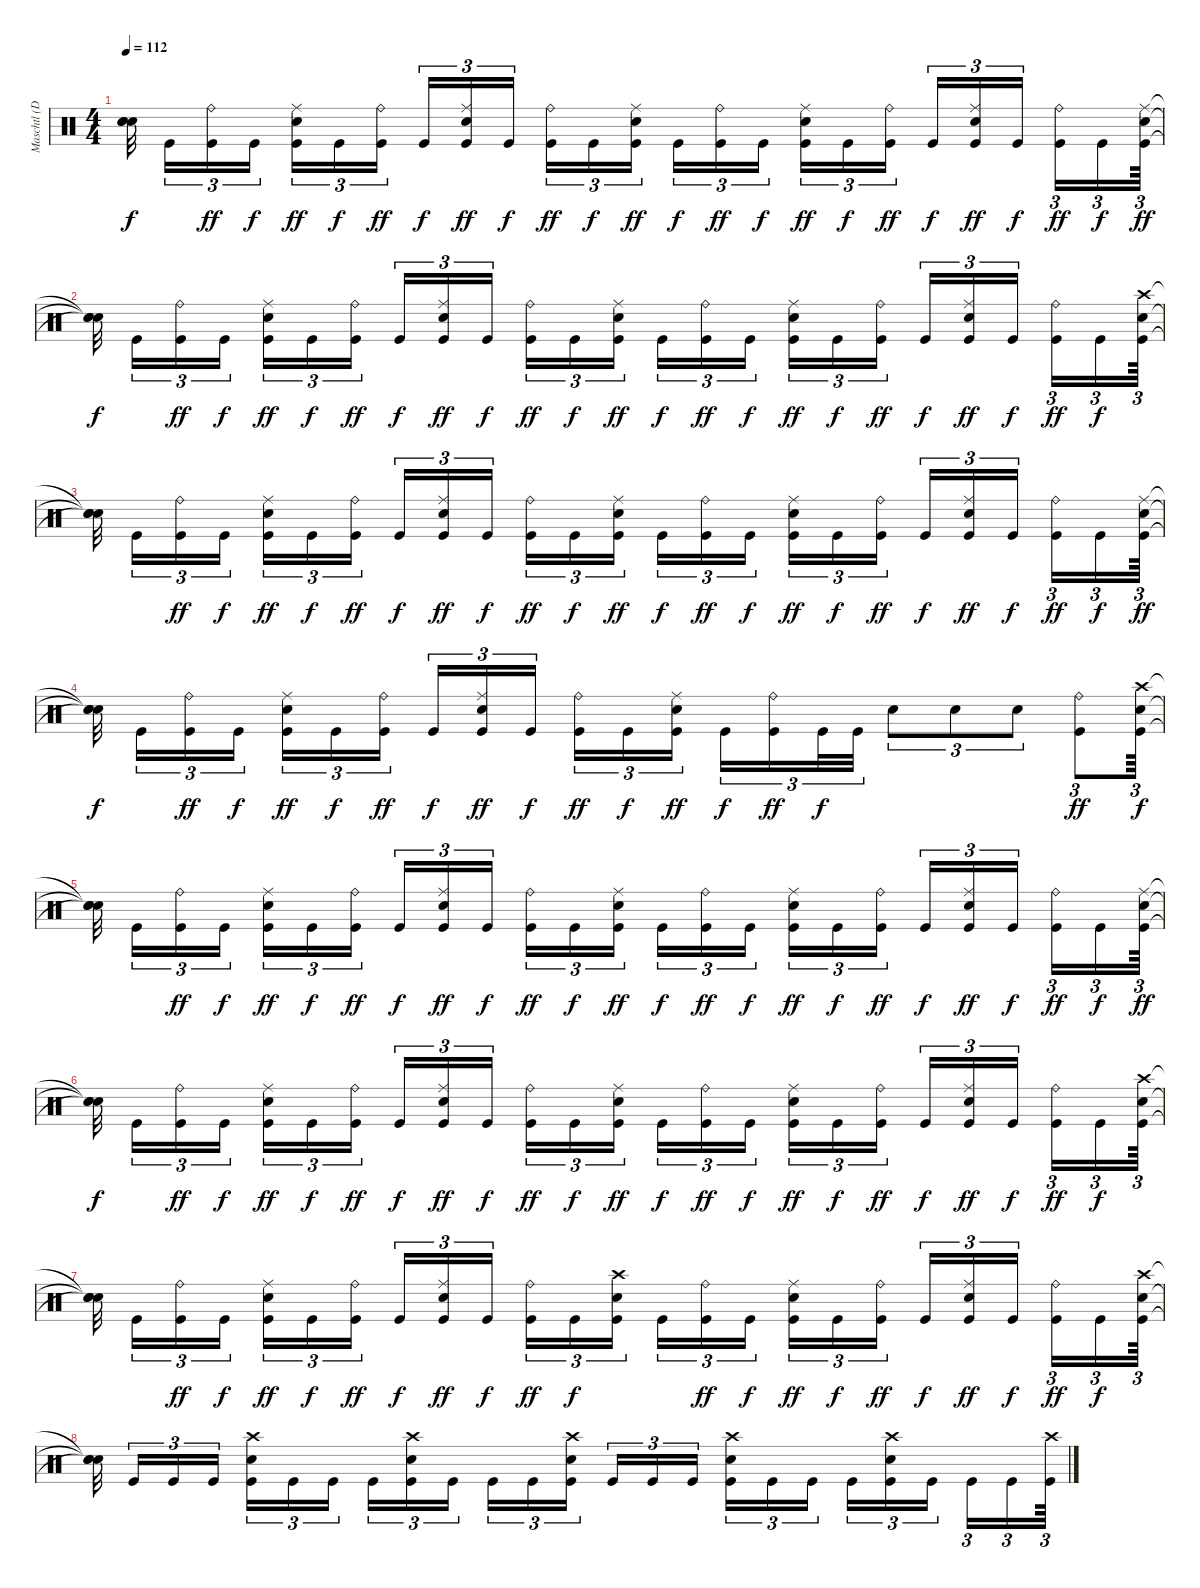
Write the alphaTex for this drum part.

\track ("Maschtl (Drums)" "Maschtl (D") {instrument percussion}
\staff {score}
\articulation defaults
\ts (4 4)
\tempo 112
\clef neutral
\ks c
("Snare (hit)"{t} "Snare (hit)"{t} "Snare (hit)"{t}).32{dy f} "Kick (hit)".16{tu (3 2)} ("Ride (bell)" "Kick (hit)").16{tu (3 2) dy ff} "Kick (hit)".16{tu (3 2) dy f} ("Ride (middle)" "Electric Snare (hit)" "Kick (hit)").16{tu (3 2) dy ff} "Kick (hit)".16{tu (3 2) dy f} ("Ride (bell)" "Kick (hit)").16{tu (3 2) dy ff} "Kick (hit)".16{tu (3 2) dy f} ("Ride (middle)" "Electric Snare (hit)" "Kick (hit)").16{tu (3 2) dy ff} "Kick (hit)".16{tu (3 2) dy f} ("Ride (bell)" "Kick (hit)").16{tu (3 2) dy ff} "Kick (hit)".16{tu (3 2) dy f} ("Ride (middle)" "Electric Snare (hit)" "Kick (hit)").16{tu (3 2) dy ff} "Kick (hit)".16{tu (3 2) dy f} ("Ride (bell)" "Kick (hit)").16{tu (3 2) dy ff} "Kick (hit)".16{tu (3 2) dy f} ("Ride (middle)" "Electric Snare (hit)" "Kick (hit)").16{tu (3 2) dy ff} "Kick (hit)".16{tu (3 2) dy f} ("Ride (bell)" "Kick (hit)").16{tu (3 2) dy ff} "Kick (hit)".16{tu (3 2) dy f} ("Ride (middle)" "Electric Snare (hit)" "Kick (hit)").16{tu (3 2) dy ff} "Kick (hit)".16{tu (3 2) dy f} ("Ride (bell)" "Kick (hit)").16{tu (3 2) dy ff} "Kick (hit)".16{tu (3 2) dy f} ("Ride (middle)" "Electric Snare (hit)" "Kick (hit)").64{tu (3 2) dy ff} |
("Snare (hit)"{t} "Snare (hit)"{t} "Snare (hit)"{t}).32{dy f} "Kick (hit)".16{tu (3 2)} ("Ride (bell)" "Kick (hit)").16{tu (3 2) dy ff} "Kick (hit)".16{tu (3 2) dy f} ("Ride (middle)" "Electric Snare (hit)" "Kick (hit)").16{tu (3 2) dy ff} "Kick (hit)".16{tu (3 2) dy f} ("Ride (bell)" "Kick (hit)").16{tu (3 2) dy ff} "Kick (hit)".16{tu (3 2) dy f} ("Ride (middle)" "Electric Snare (hit)" "Kick (hit)").16{tu (3 2) dy ff} "Kick (hit)".16{tu (3 2) dy f} ("Ride (bell)" "Kick (hit)").16{tu (3 2) dy ff} "Kick (hit)".16{tu (3 2) dy f} ("Ride (middle)" "Electric Snare (hit)" "Kick (hit)").16{tu (3 2) dy ff} "Kick (hit)".16{tu (3 2) dy f} ("Ride (bell)" "Kick (hit)").16{tu (3 2) dy ff} "Kick (hit)".16{tu (3 2) dy f} ("Ride (middle)" "Electric Snare (hit)" "Kick (hit)").16{tu (3 2) dy ff} "Kick (hit)".16{tu (3 2) dy f} ("Ride (bell)" "Kick (hit)").16{tu (3 2) dy ff} "Kick (hit)".16{tu (3 2) dy f} ("Ride (middle)" "Electric Snare (hit)" "Kick (hit)").16{tu (3 2) dy ff} "Kick (hit)".16{tu (3 2) dy f} ("Ride (bell)" "Kick (hit)").16{tu (3 2) dy ff} "Kick (hit)".16{tu (3 2) dy f} ("Crash high (hit)" "Electric Snare (hit)" "Kick (hit)").64{tu (3 2)} |
("Snare (hit)"{t} "Snare (hit)"{t} "Snare (hit)"{t}).32 "Kick (hit)".16{tu (3 2)} ("Ride (bell)" "Kick (hit)").16{tu (3 2) dy ff} "Kick (hit)".16{tu (3 2) dy f} ("Ride (middle)" "Electric Snare (hit)" "Kick (hit)").16{tu (3 2) dy ff} "Kick (hit)".16{tu (3 2) dy f} ("Ride (bell)" "Kick (hit)").16{tu (3 2) dy ff} "Kick (hit)".16{tu (3 2) dy f} ("Ride (middle)" "Electric Snare (hit)" "Kick (hit)").16{tu (3 2) dy ff} "Kick (hit)".16{tu (3 2) dy f} ("Ride (bell)" "Kick (hit)").16{tu (3 2) dy ff} "Kick (hit)".16{tu (3 2) dy f} ("Ride (middle)" "Electric Snare (hit)" "Kick (hit)").16{tu (3 2) dy ff} "Kick (hit)".16{tu (3 2) dy f} ("Ride (bell)" "Kick (hit)").16{tu (3 2) dy ff} "Kick (hit)".16{tu (3 2) dy f} ("Ride (middle)" "Electric Snare (hit)" "Kick (hit)").16{tu (3 2) dy ff} "Kick (hit)".16{tu (3 2) dy f} ("Ride (bell)" "Kick (hit)").16{tu (3 2) dy ff} "Kick (hit)".16{tu (3 2) dy f} ("Ride (middle)" "Electric Snare (hit)" "Kick (hit)").16{tu (3 2) dy ff} "Kick (hit)".16{tu (3 2) dy f} ("Ride (bell)" "Kick (hit)").16{tu (3 2) dy ff} "Kick (hit)".16{tu (3 2) dy f} ("Ride (middle)" "Electric Snare (hit)" "Kick (hit)").64{tu (3 2) dy ff} |
("Snare (hit)"{t} "Snare (hit)"{t} "Snare (hit)"{t}).32{dy f} "Kick (hit)".16{tu (3 2)} ("Ride (bell)" "Kick (hit)").16{tu (3 2) dy ff} "Kick (hit)".16{tu (3 2) dy f} ("Ride (middle)" "Electric Snare (hit)" "Kick (hit)").16{tu (3 2) dy ff} "Kick (hit)".16{tu (3 2) dy f} ("Ride (bell)" "Kick (hit)").16{tu (3 2) dy ff} "Kick (hit)".16{tu (3 2) dy f} ("Ride (middle)" "Electric Snare (hit)" "Kick (hit)").16{tu (3 2) dy ff} "Kick (hit)".16{tu (3 2) dy f} ("Ride (bell)" "Kick (hit)").16{tu (3 2) dy ff} "Kick (hit)".16{tu (3 2) dy f} ("Ride (middle)" "Electric Snare (hit)" "Kick (hit)").16{tu (3 2) dy ff} "Kick (hit)".16{tu (3 2) dy f} ("Ride (bell)" "Kick (hit)").16{tu (3 2) dy ff} "Kick (hit)".32{tu (3 2) dy f} "Kick (hit)".32{tu (3 2)} "Electric Snare (hit)".8{tu (3 2)} "Electric Snare (hit)".8{tu (3 2)} "Electric Snare (hit)".8{tu (3 2)} ("Ride (bell)" "Kick (hit)").8{tu (3 2) dy ff} ("Crash high (hit)" "Electric Snare (hit)" "Kick (hit)").64{tu (3 2) dy f} |
("Snare (hit)"{t} "Snare (hit)"{t} "Snare (hit)"{t}).32 "Kick (hit)".16{tu (3 2)} ("Ride (bell)" "Kick (hit)").16{tu (3 2) dy ff} "Kick (hit)".16{tu (3 2) dy f} ("Ride (middle)" "Electric Snare (hit)" "Kick (hit)").16{tu (3 2) dy ff} "Kick (hit)".16{tu (3 2) dy f} ("Ride (bell)" "Kick (hit)").16{tu (3 2) dy ff} "Kick (hit)".16{tu (3 2) dy f} ("Ride (middle)" "Electric Snare (hit)" "Kick (hit)").16{tu (3 2) dy ff} "Kick (hit)".16{tu (3 2) dy f} ("Ride (bell)" "Kick (hit)").16{tu (3 2) dy ff} "Kick (hit)".16{tu (3 2) dy f} ("Ride (middle)" "Electric Snare (hit)" "Kick (hit)").16{tu (3 2) dy ff} "Kick (hit)".16{tu (3 2) dy f} ("Ride (bell)" "Kick (hit)").16{tu (3 2) dy ff} "Kick (hit)".16{tu (3 2) dy f} ("Ride (middle)" "Electric Snare (hit)" "Kick (hit)").16{tu (3 2) dy ff} "Kick (hit)".16{tu (3 2) dy f} ("Ride (bell)" "Kick (hit)").16{tu (3 2) dy ff} "Kick (hit)".16{tu (3 2) dy f} ("Ride (middle)" "Electric Snare (hit)" "Kick (hit)").16{tu (3 2) dy ff} "Kick (hit)".16{tu (3 2) dy f} ("Ride (bell)" "Kick (hit)").16{tu (3 2) dy ff} "Kick (hit)".16{tu (3 2) dy f} ("Ride (middle)" "Electric Snare (hit)" "Kick (hit)").64{tu (3 2) dy ff} |
("Snare (hit)"{t} "Snare (hit)"{t} "Snare (hit)"{t}).32{dy f} "Kick (hit)".16{tu (3 2)} ("Ride (bell)" "Kick (hit)").16{tu (3 2) dy ff} "Kick (hit)".16{tu (3 2) dy f} ("Ride (middle)" "Electric Snare (hit)" "Kick (hit)").16{tu (3 2) dy ff} "Kick (hit)".16{tu (3 2) dy f} ("Ride (bell)" "Kick (hit)").16{tu (3 2) dy ff} "Kick (hit)".16{tu (3 2) dy f} ("Ride (middle)" "Electric Snare (hit)" "Kick (hit)").16{tu (3 2) dy ff} "Kick (hit)".16{tu (3 2) dy f} ("Ride (bell)" "Kick (hit)").16{tu (3 2) dy ff} "Kick (hit)".16{tu (3 2) dy f} ("Ride (middle)" "Electric Snare (hit)" "Kick (hit)").16{tu (3 2) dy ff} "Kick (hit)".16{tu (3 2) dy f} ("Ride (bell)" "Kick (hit)").16{tu (3 2) dy ff} "Kick (hit)".16{tu (3 2) dy f} ("Ride (middle)" "Electric Snare (hit)" "Kick (hit)").16{tu (3 2) dy ff} "Kick (hit)".16{tu (3 2) dy f} ("Ride (bell)" "Kick (hit)").16{tu (3 2) dy ff} "Kick (hit)".16{tu (3 2) dy f} ("Ride (middle)" "Electric Snare (hit)" "Kick (hit)").16{tu (3 2) dy ff} "Kick (hit)".16{tu (3 2) dy f} ("Ride (bell)" "Kick (hit)").16{tu (3 2) dy ff} "Kick (hit)".16{tu (3 2) dy f} ("Crash high (hit)" "Electric Snare (hit)" "Kick (hit)").64{tu (3 2)} |
("Snare (hit)"{t} "Snare (hit)"{t} "Snare (hit)"{t}).32 "Kick (hit)".16{tu (3 2)} ("Ride (bell)" "Kick (hit)").16{tu (3 2) dy ff} "Kick (hit)".16{tu (3 2) dy f} ("Ride (middle)" "Electric Snare (hit)" "Kick (hit)").16{tu (3 2) dy ff} "Kick (hit)".16{tu (3 2) dy f} ("Ride (bell)" "Kick (hit)").16{tu (3 2) dy ff} "Kick (hit)".16{tu (3 2) dy f} ("Ride (middle)" "Electric Snare (hit)" "Kick (hit)").16{tu (3 2) dy ff} "Kick (hit)".16{tu (3 2) dy f} ("Ride (bell)" "Kick (hit)").16{tu (3 2) dy ff} "Kick (hit)".16{tu (3 2) dy f} ("Crash high (hit)" "Electric Snare (hit)" "Kick (hit)").16{tu (3 2)} "Kick (hit)".16{tu (3 2)} ("Ride (bell)" "Kick (hit)").16{tu (3 2) dy ff} "Kick (hit)".16{tu (3 2) dy f} ("Ride (middle)" "Electric Snare (hit)" "Kick (hit)").16{tu (3 2) dy ff} "Kick (hit)".16{tu (3 2) dy f} ("Ride (bell)" "Kick (hit)").16{tu (3 2) dy ff} "Kick (hit)".16{tu (3 2) dy f} ("Ride (middle)" "Electric Snare (hit)" "Kick (hit)").16{tu (3 2) dy ff} "Kick (hit)".16{tu (3 2) dy f} ("Ride (bell)" "Kick (hit)").16{tu (3 2) dy ff} "Kick (hit)".16{tu (3 2) dy f} ("Crash high (hit)" "Electric Snare (hit)" "Kick (hit)").64{tu (3 2)} |
("Snare (hit)"{t} "Snare (hit)"{t} "Snare (hit)"{t}).32 "Kick (hit)".16{tu (3 2)} "Kick (hit)".16{tu (3 2)} "Kick (hit)".16{tu (3 2)} ("Crash high (hit)" "Electric Snare (hit)" "Kick (hit)").16{tu (3 2)} "Kick (hit)".16{tu (3 2)} "Kick (hit)".16{tu (3 2)} "Kick (hit)".16{tu (3 2)} ("Crash high (hit)" "Electric Snare (hit)" "Kick (hit)").16{tu (3 2)} "Kick (hit)".16{tu (3 2)} "Kick (hit)".16{tu (3 2)} "Kick (hit)".16{tu (3 2)} ("Crash high (hit)" "Electric Snare (hit)" "Kick (hit)").16{tu (3 2)} "Kick (hit)".16{tu (3 2)} "Kick (hit)".16{tu (3 2)} "Kick (hit)".16{tu (3 2)} ("Crash high (hit)" "Electric Snare (hit)" "Kick (hit)").16{tu (3 2)} "Kick (hit)".16{tu (3 2)} "Kick (hit)".16{tu (3 2)} "Kick (hit)".16{tu (3 2)} ("Crash high (hit)" "Electric Snare (hit)" "Kick (hit)").16{tu (3 2)} "Kick (hit)".16{tu (3 2)} "Kick (hit)".16{tu (3 2)} "Kick (hit)".16{tu (3 2)} ("Crash high (hit)" "Kick (hit)").64{tu (3 2)}
